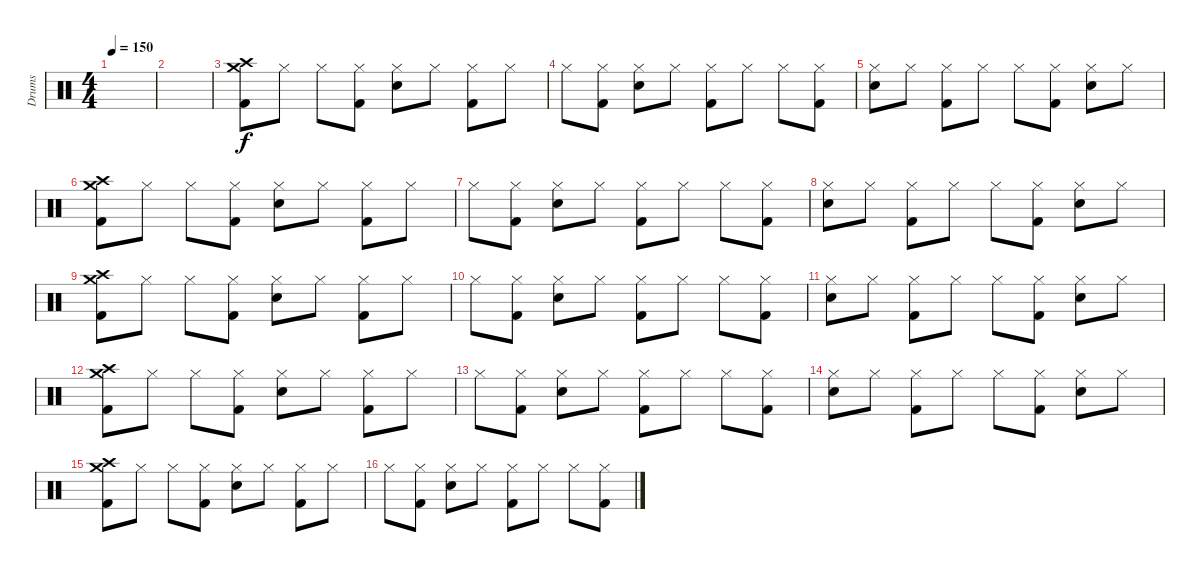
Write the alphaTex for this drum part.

\track ("Drums" "Drums") {instrument percussion}
\staff {score}
\articulation defaults
\ts (4 4)
\tempo 150
\clef neutral
\ks c
|
|
("Crash high (hit)" "Crash medium (hit)" "Kick (hit) 2").8 "Hi-Hat (closed)".8 "Hi-Hat (closed)".8 ("Hi-Hat (closed)" "Kick (hit) 2").8 ("Hi-Hat (closed)" "Electric Snare (hit)").8 "Hi-Hat (closed)".8 ("Hi-Hat (closed)" "Kick (hit) 2").8 "Hi-Hat (closed)".8 |
"Hi-Hat (closed)".8 ("Hi-Hat (closed)" "Kick (hit) 2").8 ("Hi-Hat (closed)" "Electric Snare (hit)").8 "Hi-Hat (closed)".8 ("Hi-Hat (closed)" "Kick (hit) 2").8 "Hi-Hat (closed)".8 "Hi-Hat (closed)".8 ("Hi-Hat (closed)" "Kick (hit) 2").8 |
("Hi-Hat (closed)" "Electric Snare (hit)").8 "Hi-Hat (closed)".8 ("Hi-Hat (closed)" "Kick (hit) 2").8 "Hi-Hat (closed)".8 "Hi-Hat (closed)".8 ("Hi-Hat (closed)" "Kick (hit) 2").8 ("Hi-Hat (closed)" "Electric Snare (hit)").8 "Hi-Hat (closed)".8 |
("Crash high (hit)" "Crash medium (hit)" "Kick (hit) 2").8 "Hi-Hat (closed)".8 "Hi-Hat (closed)".8 ("Hi-Hat (closed)" "Kick (hit) 2").8 ("Hi-Hat (closed)" "Electric Snare (hit)").8 "Hi-Hat (closed)".8 ("Hi-Hat (closed)" "Kick (hit) 2").8 "Hi-Hat (closed)".8 |
"Hi-Hat (closed)".8 ("Hi-Hat (closed)" "Kick (hit) 2").8 ("Hi-Hat (closed)" "Electric Snare (hit)").8 "Hi-Hat (closed)".8 ("Hi-Hat (closed)" "Kick (hit) 2").8 "Hi-Hat (closed)".8 "Hi-Hat (closed)".8 ("Hi-Hat (closed)" "Kick (hit) 2").8 |
("Hi-Hat (closed)" "Electric Snare (hit)").8 "Hi-Hat (closed)".8 ("Hi-Hat (closed)" "Kick (hit) 2").8 "Hi-Hat (closed)".8 "Hi-Hat (closed)".8 ("Hi-Hat (closed)" "Kick (hit) 2").8 ("Hi-Hat (closed)" "Electric Snare (hit)").8 "Hi-Hat (closed)".8 |
("Crash high (hit)" "Crash medium (hit)" "Kick (hit) 2").8 "Hi-Hat (closed)".8 "Hi-Hat (closed)".8 ("Hi-Hat (closed)" "Kick (hit) 2").8 ("Hi-Hat (closed)" "Electric Snare (hit)").8 "Hi-Hat (closed)".8 ("Hi-Hat (closed)" "Kick (hit) 2").8 "Hi-Hat (closed)".8 |
"Hi-Hat (closed)".8 ("Hi-Hat (closed)" "Kick (hit) 2").8 ("Hi-Hat (closed)" "Electric Snare (hit)").8 "Hi-Hat (closed)".8 ("Hi-Hat (closed)" "Kick (hit) 2").8 "Hi-Hat (closed)".8 "Hi-Hat (closed)".8 ("Hi-Hat (closed)" "Kick (hit) 2").8 |
("Hi-Hat (closed)" "Electric Snare (hit)").8 "Hi-Hat (closed)".8 ("Hi-Hat (closed)" "Kick (hit) 2").8 "Hi-Hat (closed)".8 "Hi-Hat (closed)".8 ("Hi-Hat (closed)" "Kick (hit) 2").8 ("Hi-Hat (closed)" "Electric Snare (hit)").8 "Hi-Hat (closed)".8 |
("Crash high (hit)" "Crash medium (hit)" "Kick (hit) 2").8 "Hi-Hat (closed)".8 "Hi-Hat (closed)".8 ("Hi-Hat (closed)" "Kick (hit) 2").8 ("Hi-Hat (closed)" "Electric Snare (hit)").8 "Hi-Hat (closed)".8 ("Hi-Hat (closed)" "Kick (hit) 2").8 "Hi-Hat (closed)".8 |
"Hi-Hat (closed)".8 ("Hi-Hat (closed)" "Kick (hit) 2").8 ("Hi-Hat (closed)" "Electric Snare (hit)").8 "Hi-Hat (closed)".8 ("Hi-Hat (closed)" "Kick (hit) 2").8 "Hi-Hat (closed)".8 "Hi-Hat (closed)".8 ("Hi-Hat (closed)" "Kick (hit) 2").8 |
("Hi-Hat (closed)" "Electric Snare (hit)").8 "Hi-Hat (closed)".8 ("Hi-Hat (closed)" "Kick (hit) 2").8 "Hi-Hat (closed)".8 "Hi-Hat (closed)".8 ("Hi-Hat (closed)" "Kick (hit) 2").8 ("Hi-Hat (closed)" "Electric Snare (hit)").8 "Hi-Hat (closed)".8 |
("Crash high (hit)" "Crash medium (hit)" "Kick (hit) 2").8 "Hi-Hat (closed)".8 "Hi-Hat (closed)".8 ("Hi-Hat (closed)" "Kick (hit) 2").8 ("Hi-Hat (closed)" "Electric Snare (hit)").8 "Hi-Hat (closed)".8 ("Hi-Hat (closed)" "Kick (hit) 2").8 "Hi-Hat (closed)".8 |
"Hi-Hat (closed)".8 ("Hi-Hat (closed)" "Kick (hit) 2").8 ("Hi-Hat (closed)" "Electric Snare (hit)").8 "Hi-Hat (closed)".8 ("Hi-Hat (closed)" "Kick (hit) 2").8 "Hi-Hat (closed)".8 "Hi-Hat (closed)".8 ("Hi-Hat (closed)" "Kick (hit) 2").8
